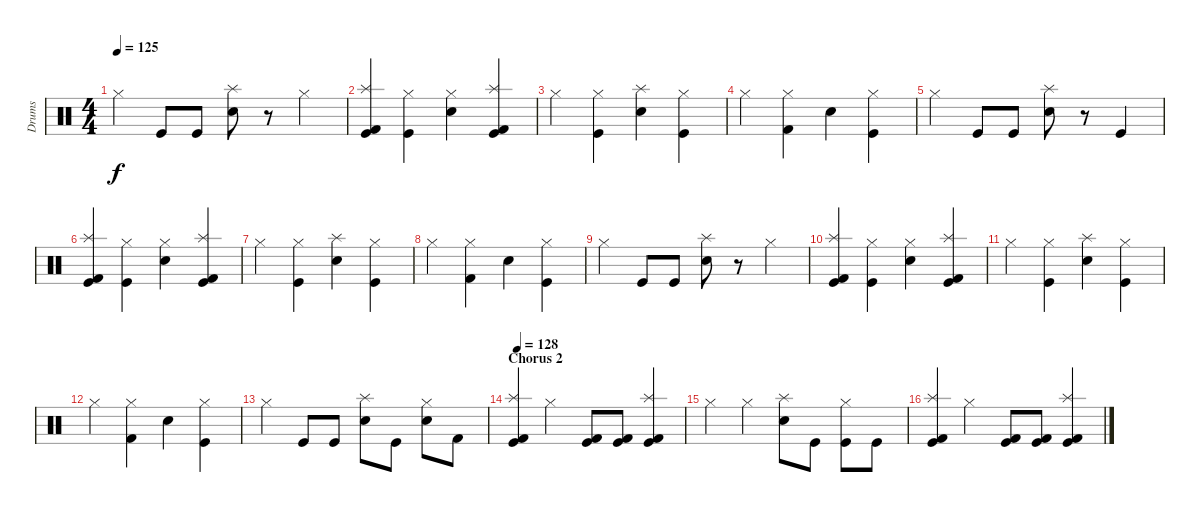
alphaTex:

\track ("Drums" "Drums") {instrument percussion}
\staff {score}
\articulation defaults
\ts (4 4)
\tempo 125
\clef neutral
\ks c "Hi-Hat (closed)".4{dy f} "Kick (hit)".8 "Kick (hit)".8
("Electric Snare (hit)" "Splash (hit)").8 r.8 "Hi-Hat (closed)".4 |
("Kick (hit) 2" "Kick (hit)" "Splash (hit)").4 ("Kick (hit)" "Hi-Hat (closed)").4 ("Electric Snare (hit)" "Hi-Hat (closed)").4 ("Kick (hit) 2" "Kick (hit)" "Splash (hit)").4 |
"Hi-Hat (closed)".4 ("Kick (hit)" "Hi-Hat (closed)").4 ("Electric Snare (hit)" "Splash (hit)").4 ("Kick (hit)" "Hi-Hat (closed)").4 |
"Hi-Hat (closed)".4 ("Kick (hit) 2" "Hi-Hat (closed)").4 "Electric Snare (hit)".4 ("Kick (hit)" "Hi-Hat (closed)").4 |
"Hi-Hat (closed)".4 "Kick (hit)".8 "Kick (hit)".8 ("Electric Snare (hit)" "Splash (hit)").8 r.8 "Kick (hit)".4 |
("Kick (hit) 2" "Kick (hit)" "Splash (hit)").4 ("Kick (hit)" "Hi-Hat (closed)").4 ("Electric Snare (hit)" "Hi-Hat (closed)").4 ("Kick (hit) 2" "Kick (hit)" "Splash (hit)").4 |
"Hi-Hat (closed)".4 ("Kick (hit)" "Hi-Hat (closed)").4 ("Electric Snare (hit)" "Splash (hit)").4 ("Kick (hit)" "Hi-Hat (closed)").4 |
"Hi-Hat (closed)".4 ("Kick (hit) 2" "Hi-Hat (closed)").4 "Electric Snare (hit)".4 ("Kick (hit)" "Hi-Hat (closed)").4 |
"Hi-Hat (closed)".4 "Kick (hit)".8 "Kick (hit)".8 ("Electric Snare (hit)" "Splash (hit)").8 r.8 "Hi-Hat (closed)".4 |
("Kick (hit) 2" "Kick (hit)" "Splash (hit)").4 ("Kick (hit)" "Hi-Hat (closed)").4 ("Electric Snare (hit)" "Hi-Hat (closed)").4 ("Kick (hit) 2" "Kick (hit)" "Splash (hit)").4 |
"Hi-Hat (closed)".4 ("Kick (hit)" "Hi-Hat (closed)").4 ("Electric Snare (hit)" "Splash (hit)").4 ("Kick (hit)" "Hi-Hat (closed)").4 |
"Hi-Hat (closed)".4 ("Kick (hit) 2" "Hi-Hat (closed)").4 "Electric Snare (hit)".4 ("Kick (hit)" "Hi-Hat (closed)").4 |
"Hi-Hat (closed)".4 "Kick (hit)".8 "Kick (hit)".8 ("Electric Snare (hit)" "Splash (hit)").8 "Kick (hit)".8 ("Electric Snare (hit)" "Hi-Hat (closed)").8 "Kick (hit) 2".8 |
\section ("" "Chorus 2")
\tempo 128
("Kick (hit) 2" "Kick (hit)" "Splash (hit)").4 "Hi-Hat (closed)".4 ("Kick (hit) 2" "Kick (hit)").8 ("Kick (hit) 2" "Kick (hit)").8 ("Kick (hit) 2" "Kick (hit)" "Splash (hit)").4 |
"Hi-Hat (closed)".4 "Hi-Hat (closed)".4 ("Electric Snare (hit)" "Splash (hit)").8 "Kick (hit)".8 ("Kick (hit)" "Hi-Hat (closed)").8 "Kick (hit)".8 |
("Kick (hit) 2" "Kick (hit)" "Splash (hit)").4 "Hi-Hat (closed)".4 ("Kick (hit) 2" "Kick (hit)").8 ("Kick (hit) 2" "Kick (hit)").8 ("Kick (hit) 2" "Kick (hit)" "Splash (hit)").4
